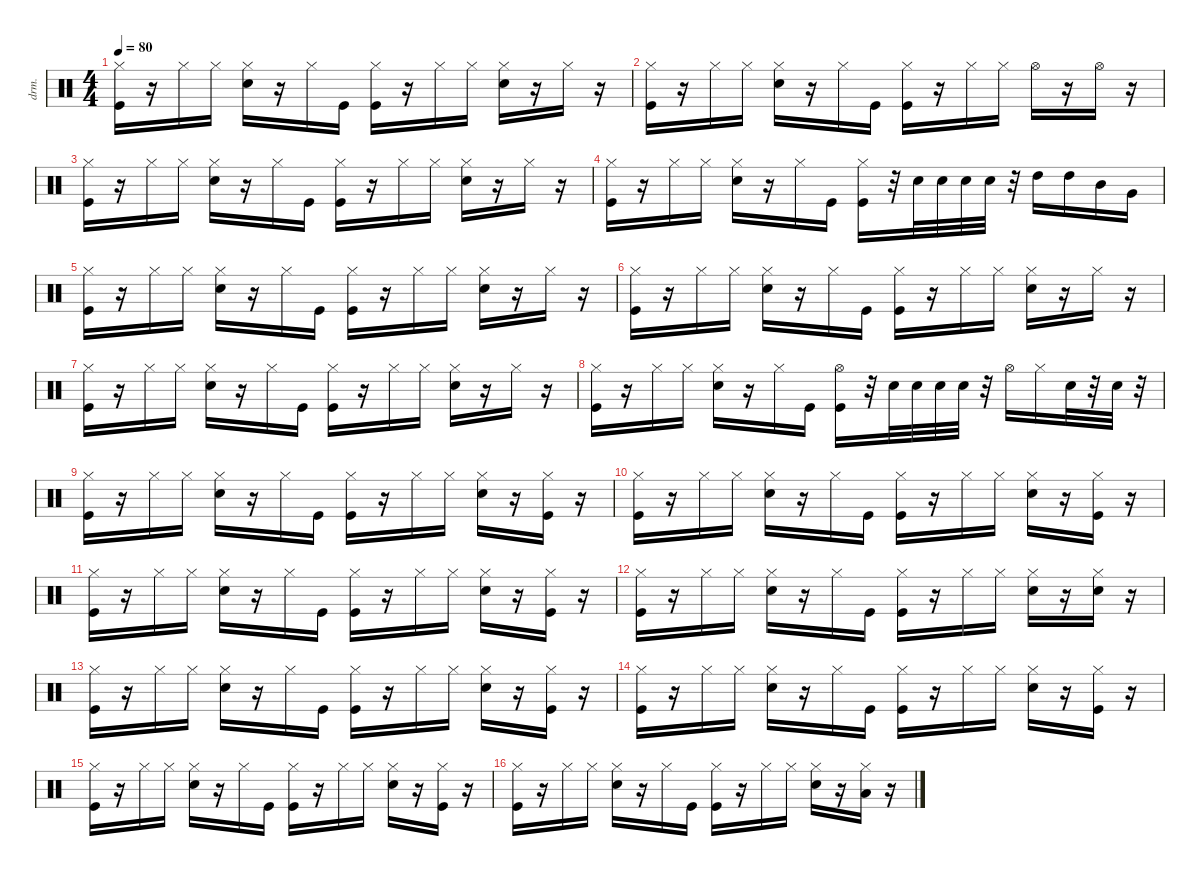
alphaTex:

\defaultSystemsLayout 4
\hideDynamics
\bracketExtendMode nobrackets
\track ("Percussions" "drm.") {instrument percussion}
\staff {score}
\articulation defaults
\ts (4 4)
\tempo 80
\clef neutral
\ks c
("Kick (hit)" "Hi-Hat (closed)").16{dy f beam Down} r.16{beam Down} "Hi-Hat (closed)".16{beam Down} "Hi-Hat (closed)".16{beam Down} ("Snare (hit) 2" "Hi-Hat (closed)").16{beam Down} r.16{beam Down} "Hi-Hat (closed)".16{beam Down} "Kick (hit)".16{beam Down} ("Kick (hit)" "Hi-Hat (closed)").16{beam Down} r.16{beam Down} "Hi-Hat (closed)".16{beam Down} "Hi-Hat (closed)".16{beam Down} ("Snare (hit) 2" "Hi-Hat (closed)").16{beam Down} r.16{beam Down} "Hi-Hat (closed)".16{beam Down} r.16{beam Down} |
("Kick (hit)" "Hi-Hat (closed)").16{beam Down} r.16{beam Down} "Hi-Hat (closed)".16{beam Down} "Hi-Hat (closed)".16{beam Down} ("Snare (hit) 2" "Hi-Hat (closed)").16{beam Down} r.16{beam Down} "Hi-Hat (closed)".16{beam Down} "Kick (hit)".16{beam Down} ("Kick (hit)" "Hi-Hat (closed)").16{beam Down} r.16{beam Down} "Hi-Hat (closed)".16{beam Down} "Hi-Hat (closed)".16{beam Down} "Hi-Hat (open)".16{beam Down} r.16{beam Down} "Hi-Hat (open)".16{beam Down} r.16{beam Down} |
("Kick (hit)" "Hi-Hat (closed)").16{beam Down} r.16{beam Down} "Hi-Hat (closed)".16{beam Down} "Hi-Hat (closed)".16{beam Down} ("Snare (hit) 2" "Hi-Hat (closed)").16{beam Down} r.16{beam Down} "Hi-Hat (closed)".16{beam Down} "Kick (hit)".16{beam Down} ("Kick (hit)" "Hi-Hat (closed)").16{beam Down} r.16{beam Down} "Hi-Hat (closed)".16{beam Down} "Hi-Hat (closed)".16{beam Down} ("Snare (hit) 2" "Hi-Hat (closed)").16{beam Down} r.16{beam Down} "Hi-Hat (closed)".16{beam Down} r.16{beam Down} |
("Kick (hit)" "Hi-Hat (closed)").16{beam Down} r.16{beam Down} "Hi-Hat (closed)".16{beam Down} "Hi-Hat (closed)".16{beam Down} ("Snare (hit) 2" "Hi-Hat (closed)").16{beam Down} r.16{beam Down} "Hi-Hat (closed)".16{beam Down} "Kick (hit)".16{beam Down} ("Kick (hit)" "Hi-Hat (closed)").16{beam Down} r.32{beam Down} "Snare (hit) 2".32{beam Down} "Snare (hit) 2".32{beam Down} "Snare (hit) 2".32{beam Down} "Snare (hit) 2".32{beam Down} r.32{beam Down} "High Tom (hit)".16{beam Down} "High Tom (hit)".16{beam Down} "Mid Tom (hit)".16{beam Down} "Very Low Tom (hit)".16{beam Down} |
("Kick (hit)" "Hi-Hat (closed)").16{beam Down} r.16{beam Down} "Hi-Hat (closed)".16{beam Down} "Hi-Hat (closed)".16{beam Down} ("Snare (hit) 2" "Hi-Hat (closed)").16{beam Down} r.16{beam Down} "Hi-Hat (closed)".16{beam Down} "Kick (hit)".16{beam Down} ("Kick (hit)" "Hi-Hat (closed)").16{beam Down} r.16{beam Down} "Hi-Hat (closed)".16{beam Down} "Hi-Hat (closed)".16{beam Down} ("Snare (hit) 2" "Hi-Hat (closed)").16{beam Down} r.16{beam Down} "Hi-Hat (closed)".16{beam Down} r.16{beam Down} |
("Kick (hit)" "Hi-Hat (closed)").16{beam Down} r.16{beam Down} "Hi-Hat (closed)".16{beam Down} "Hi-Hat (closed)".16{beam Down} ("Snare (hit) 2" "Hi-Hat (closed)").16{beam Down} r.16{beam Down} "Hi-Hat (closed)".16{beam Down} "Kick (hit)".16{beam Down} ("Kick (hit)" "Hi-Hat (closed)").16{beam Down} r.16{beam Down} "Hi-Hat (closed)".16{beam Down} "Hi-Hat (closed)".16{beam Down} ("Snare (hit) 2" "Hi-Hat (closed)").16{beam Down} r.16{beam Down} "Hi-Hat (closed)".16{beam Down} r.16{beam Down} |
("Kick (hit)" "Hi-Hat (closed)").16{beam Down} r.16{beam Down} "Hi-Hat (closed)".16{beam Down} "Hi-Hat (closed)".16{beam Down} ("Snare (hit) 2" "Hi-Hat (closed)").16{beam Down} r.16{beam Down} "Hi-Hat (closed)".16{beam Down} "Kick (hit)".16{beam Down} ("Kick (hit)" "Hi-Hat (closed)").16{beam Down} r.16{beam Down} "Hi-Hat (closed)".16{beam Down} "Hi-Hat (closed)".16{beam Down} ("Snare (hit) 2" "Hi-Hat (closed)").16{beam Down} r.16{beam Down} "Hi-Hat (closed)".16{beam Down} r.16{beam Down} |
("Kick (hit)" "Hi-Hat (closed)").16{beam Down} r.16{beam Down} "Hi-Hat (closed)".16{beam Down} "Hi-Hat (closed)".16{beam Down} ("Snare (hit) 2" "Hi-Hat (closed)").16{beam Down} r.16{beam Down} "Hi-Hat (closed)".16{beam Down} "Kick (hit)".16{beam Down} ("Kick (hit)" "Hi-Hat (open)").16{beam Down} r.32{beam Down} "Snare (hit) 2".32{beam Down} "Snare (hit) 2".32{beam Down} "Snare (hit) 2".32{beam Down} "Snare (hit) 2".32{beam Down} r.32{beam Down} "Hi-Hat (open)".16{beam Down} "Hi-Hat (closed)".16{beam Down} "Snare (hit) 2".32{beam Down} r.32{beam Down} "Snare (hit) 2".32{beam Down} r.32{beam Down} |
("Kick (hit)" "Hi-Hat (closed)").16{beam Down} r.16{beam Down} "Hi-Hat (closed)".16{beam Down} "Hi-Hat (closed)".16{beam Down} ("Snare (hit) 2" "Hi-Hat (closed)").16{beam Down} r.16{beam Down} "Hi-Hat (closed)".16{beam Down} "Kick (hit)".16{beam Down} ("Kick (hit)" "Hi-Hat (closed)").16{beam Down} r.16{beam Down} "Hi-Hat (closed)".16{beam Down} "Hi-Hat (closed)".16{beam Down} ("Snare (hit) 2" "Hi-Hat (closed)").16{beam Down} r.16{beam Down} ("Kick (hit)" "Hi-Hat (closed)").16{beam Down} r.16{beam Down} |
("Kick (hit)" "Hi-Hat (closed)").16{beam Down} r.16{beam Down} "Hi-Hat (closed)".16{beam Down} "Hi-Hat (closed)".16{beam Down} ("Snare (hit) 2" "Hi-Hat (closed)").16{beam Down} r.16{beam Down} "Hi-Hat (closed)".16{beam Down} "Kick (hit)".16{beam Down} ("Kick (hit)" "Hi-Hat (closed)").16{beam Down} r.16{beam Down} "Hi-Hat (closed)".16{beam Down} "Hi-Hat (closed)".16{beam Down} ("Snare (hit) 2" "Hi-Hat (closed)").16{beam Down} r.16{beam Down} ("Kick (hit)" "Hi-Hat (closed)").16{beam Down} r.16{beam Down} |
("Kick (hit)" "Hi-Hat (closed)").16{beam Down} r.16{beam Down} "Hi-Hat (closed)".16{beam Down} "Hi-Hat (closed)".16{beam Down} ("Snare (hit) 2" "Hi-Hat (closed)").16{beam Down} r.16{beam Down} "Hi-Hat (closed)".16{beam Down} "Kick (hit)".16{beam Down} ("Kick (hit)" "Hi-Hat (closed)").16{beam Down} r.16{beam Down} "Hi-Hat (closed)".16{beam Down} "Hi-Hat (closed)".16{beam Down} ("Snare (hit) 2" "Hi-Hat (closed)").16{beam Down} r.16{beam Down} ("Kick (hit)" "Hi-Hat (closed)").16{beam Down} r.16{beam Down} |
("Kick (hit)" "Hi-Hat (closed)").16{beam Down} r.16{beam Down} "Hi-Hat (closed)".16{beam Down} "Hi-Hat (closed)".16{beam Down} ("Snare (hit) 2" "Hi-Hat (closed)").16{beam Down} r.16{beam Down} "Hi-Hat (closed)".16{beam Down} "Kick (hit)".16{beam Down} ("Kick (hit)" "Hi-Hat (closed)").16{beam Down} r.16{beam Down} "Hi-Hat (closed)".16{beam Down} "Hi-Hat (closed)".16{beam Down} ("Snare (hit) 2" "Hi-Hat (closed)").16{beam Down} r.16{beam Down} ("Snare (hit) 2" "Hi-Hat (closed)").16{beam Down} r.16{beam Down} |
("Kick (hit)" "Hi-Hat (closed)").16{beam Down} r.16{beam Down} "Hi-Hat (closed)".16{beam Down} "Hi-Hat (closed)".16{beam Down} ("Snare (hit) 2" "Hi-Hat (closed)").16{beam Down} r.16{beam Down} "Hi-Hat (closed)".16{beam Down} "Kick (hit)".16{beam Down} ("Kick (hit)" "Hi-Hat (closed)").16{beam Down} r.16{beam Down} "Hi-Hat (closed)".16{beam Down} "Hi-Hat (closed)".16{beam Down} ("Snare (hit) 2" "Hi-Hat (closed)").16{beam Down} r.16{beam Down} ("Kick (hit)" "Hi-Hat (closed)").16{beam Down} r.16{beam Down} |
("Kick (hit)" "Hi-Hat (closed)").16{beam Down} r.16{beam Down} "Hi-Hat (closed)".16{beam Down} "Hi-Hat (closed)".16{beam Down} ("Snare (hit) 2" "Hi-Hat (closed)").16{beam Down} r.16{beam Down} "Hi-Hat (closed)".16{beam Down} "Kick (hit)".16{beam Down} ("Kick (hit)" "Hi-Hat (closed)").16{beam Down} r.16{beam Down} "Hi-Hat (closed)".16{beam Down} "Hi-Hat (closed)".16{beam Down} ("Snare (hit) 2" "Hi-Hat (closed)").16{beam Down} r.16{beam Down} ("Kick (hit)" "Hi-Hat (closed)").16{beam Down} r.16{beam Down} |
("Kick (hit)" "Hi-Hat (closed)").16{beam Down} r.16{beam Down} "Hi-Hat (closed)".16{beam Down} "Hi-Hat (closed)".16{beam Down} ("Snare (hit) 2" "Hi-Hat (closed)").16{beam Down} r.16{beam Down} "Hi-Hat (closed)".16{beam Down} "Kick (hit)".16{beam Down} ("Kick (hit)" "Hi-Hat (closed)").16{beam Down} r.16{beam Down} "Hi-Hat (closed)".16{beam Down} "Hi-Hat (closed)".16{beam Down} ("Snare (hit) 2" "Hi-Hat (closed)").16{beam Down} r.16{beam Down} ("Kick (hit)" "Hi-Hat (closed)").16{beam Down} r.16{beam Down} |
("Kick (hit)" "Hi-Hat (closed)").16{beam Down} r.16{beam Down} "Hi-Hat (closed)".16{beam Down} "Hi-Hat (closed)".16{beam Down} ("Snare (hit) 2" "Hi-Hat (closed)").16{beam Down} r.16{beam Down} "Hi-Hat (closed)".16{beam Down} "Kick (hit)".16{beam Down} ("Kick (hit)" "Hi-Hat (closed)").16{beam Down} r.16{beam Down} "Hi-Hat (closed)".16{beam Down} "Hi-Hat (closed)".16{beam Down} ("Snare (hit) 2" "Hi-Hat (closed)").16{beam Down} r.16{beam Down} ("Low Tom (hit)" "Hi-Hat (closed)").16{beam Down} r.16{beam Down}
